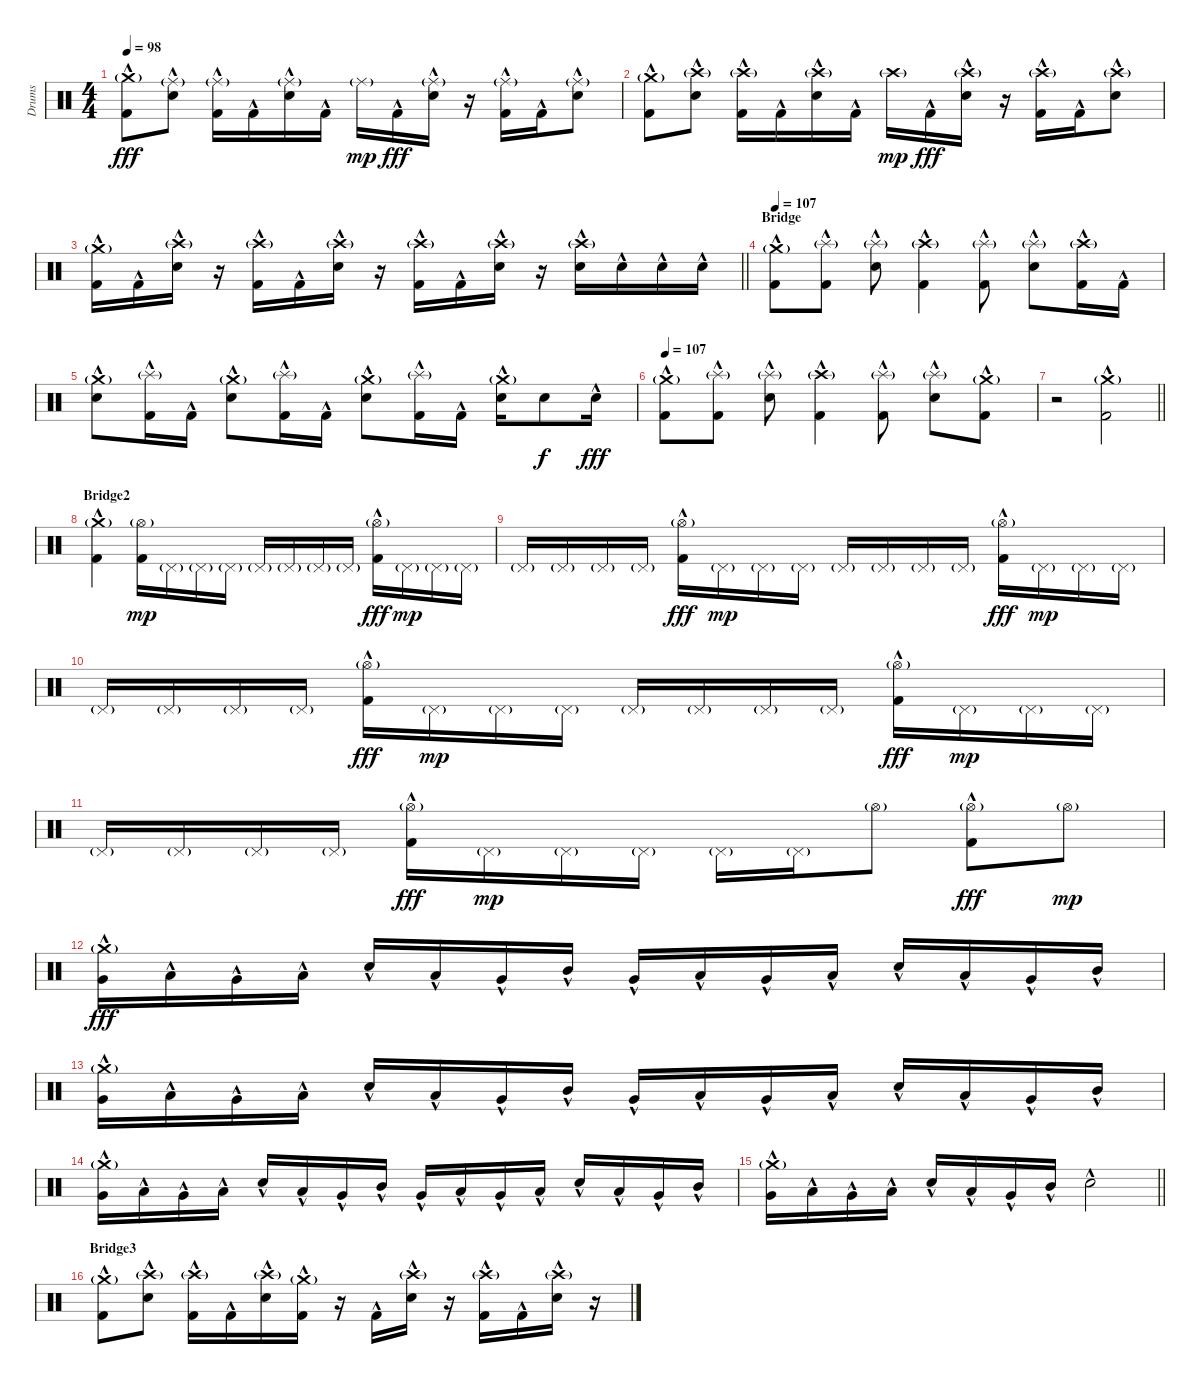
\track ("Drums" "Drums") {instrument percussion}
\staff {score}
\articulation defaults
\ts (4 4)
\tempo 98
\clef neutral
\ks c
("Crash medium (hit)"{g} "Kick (hit) 2"{hac}).8{dy fff} ("Ride (middle)"{g} "Snare (hit) 2"{hac}).8 ("Ride (middle)"{g} "Kick (hit) 2"{hac}).16 "Kick (hit) 2"{hac}.16 ("Ride (middle)"{g} "Snare (hit) 2"{hac}).16 "Kick (hit) 2"{hac}.16 "Ride (middle)"{g}.16{dy mp} "Kick (hit) 2"{hac}.16{dy fff} ("Ride (middle)"{g} "Snare (hit) 2"{hac}).16 r.16 ("Ride (middle)"{g} "Kick (hit) 2"{hac}).16 "Kick (hit) 2"{hac}.16 ("Ride (middle)"{g} "Snare (hit) 2"{hac}).8 |
("Crash medium (hit)"{g} "Kick (hit) 2"{hac}).8 ("Crash high (hit)"{g} "Snare (hit) 2"{hac}).8 ("Crash high (hit)"{g} "Kick (hit) 2"{hac}).16 "Kick (hit) 2"{hac}.16 ("Crash high (hit)"{g} "Snare (hit) 2"{hac}).16 "Kick (hit) 2"{hac}.16 "Crash high (hit)"{g}.16{dy mp} "Kick (hit) 2"{hac}.16{dy fff} ("Crash high (hit)"{g} "Snare (hit) 2"{hac}).16 r.16 ("Crash high (hit)"{g} "Kick (hit) 2"{hac}).16 "Kick (hit) 2"{hac}.16 ("Crash high (hit)"{g} "Snare (hit) 2"{hac}).8 |
\barLineRight lightlight
("Crash medium (hit)"{g} "Kick (hit) 2"{hac}).16 "Kick (hit) 2"{hac}.16 ("Crash high (hit)"{g} "Snare (hit) 2"{hac}).16 r.16 ("Crash high (hit)"{g} "Kick (hit) 2"{hac}).16 "Kick (hit) 2"{hac}.16 ("Crash high (hit)"{g} "Snare (hit) 2"{hac}).16 r.16 ("Crash high (hit)"{g} "Kick (hit) 2"{hac}).16 "Kick (hit) 2"{hac}.16 ("Crash high (hit)"{g} "Snare (hit) 2"{hac}).16 r.16 ("Crash high (hit)"{g} "Snare (hit) 2"{hac}).16 "Snare (hit) 2"{hac}.16 "Snare (hit) 2"{hac}.16 "Snare (hit) 2"{hac}.16 |
\section ("" "Bridge")
\tempo 107
("Crash medium (hit)"{g} "Kick (hit) 2"{hac}).8 ("Splash (hit)"{g} "Kick (hit) 2"{hac}).8 ("Splash (hit)"{g} "Snare (hit) 2"{hac}).8 ("Crash high (hit)"{g} "Kick (hit) 2"{hac}).4 ("Splash (hit)"{g} "Kick (hit) 2"{hac}).8 ("Splash (hit)"{g} "Snare (hit) 2"{hac}).8 ("Crash high (hit)"{g} "Kick (hit) 2"{hac}).16 "Kick (hit) 2"{hac}.16 |
("Crash medium (hit)"{g} "Snare (hit) 2"{hac}).8 ("Splash (hit)"{g} "Kick (hit) 2"{hac}).16 "Kick (hit) 2"{hac}.16 ("Crash medium (hit)"{g} "Snare (hit) 2"{hac}).8 ("Splash (hit)"{g} "Kick (hit) 2"{hac}).16 "Kick (hit) 2"{hac}.16 ("Crash medium (hit)"{g} "Snare (hit) 2"{hac}).8 ("Splash (hit)"{g} "Kick (hit) 2"{hac}).16 "Kick (hit) 2"{hac}.16 ("Crash medium (hit)"{g} "Snare (hit) 2"{hac}).16 "Snare (hit) 2".8{dy f} "Snare (hit) 2"{hac}.16{dy fff} |
\tempo 107
("Crash medium (hit)"{g} "Kick (hit) 2"{hac}).8 ("Splash (hit)"{g} "Kick (hit) 2"{hac}).8 ("Splash (hit)"{g} "Snare (hit) 2"{hac}).8 ("Crash high (hit)"{g} "Kick (hit) 2"{hac}).4 ("Splash (hit)"{g} "Kick (hit) 2"{hac}).8 ("Splash (hit)"{g} "Snare (hit) 2"{hac}).8 ("Crash medium (hit)"{g} "Kick (hit) 2"{hac}).8 |
\barLineRight lightlight
r.2 ("Crash medium (hit)"{g} "Kick (hit) 2"{hac}).2 |
\section ("" "Bridge2")
("Crash medium (hit)"{g} "Kick (hit) 2"{hac}).4 ("Hi-Hat (open)"{g} "Kick (hit) 2").16{dy mp} "Pedal Hi-Hat (hit)"{g}.16 "Pedal Hi-Hat (hit)"{g}.16 "Pedal Hi-Hat (hit)"{g}.16 "Pedal Hi-Hat (hit)"{g}.16 "Pedal Hi-Hat (hit)"{g}.16 "Pedal Hi-Hat (hit)"{g}.16 "Pedal Hi-Hat (hit)"{g}.16 ("Hi-Hat (open)"{g} "Kick (hit) 2"{hac}).16{dy fff} "Pedal Hi-Hat (hit)"{g}.16{dy mp} "Pedal Hi-Hat (hit)"{g}.16 "Pedal Hi-Hat (hit)"{g}.16 |
"Pedal Hi-Hat (hit)"{g}.16 "Pedal Hi-Hat (hit)"{g}.16 "Pedal Hi-Hat (hit)"{g}.16 "Pedal Hi-Hat (hit)"{g}.16 ("Hi-Hat (open)"{g} "Kick (hit) 2"{hac}).16{dy fff} "Pedal Hi-Hat (hit)"{g}.16{dy mp} "Pedal Hi-Hat (hit)"{g}.16 "Pedal Hi-Hat (hit)"{g}.16 "Pedal Hi-Hat (hit)"{g}.16 "Pedal Hi-Hat (hit)"{g}.16 "Pedal Hi-Hat (hit)"{g}.16 "Pedal Hi-Hat (hit)"{g}.16 ("Hi-Hat (open)"{g} "Kick (hit) 2"{hac}).16{dy fff} "Pedal Hi-Hat (hit)"{g}.16{dy mp} "Pedal Hi-Hat (hit)"{g}.16 "Pedal Hi-Hat (hit)"{g}.16 |
"Pedal Hi-Hat (hit)"{g}.16 "Pedal Hi-Hat (hit)"{g}.16 "Pedal Hi-Hat (hit)"{g}.16 "Pedal Hi-Hat (hit)"{g}.16 ("Hi-Hat (open)"{g} "Kick (hit) 2"{hac}).16{dy fff} "Pedal Hi-Hat (hit)"{g}.16{dy mp} "Pedal Hi-Hat (hit)"{g}.16 "Pedal Hi-Hat (hit)"{g}.16 "Pedal Hi-Hat (hit)"{g}.16 "Pedal Hi-Hat (hit)"{g}.16 "Pedal Hi-Hat (hit)"{g}.16 "Pedal Hi-Hat (hit)"{g}.16 ("Hi-Hat (open)"{g} "Kick (hit) 2"{hac}).16{dy fff} "Pedal Hi-Hat (hit)"{g}.16{dy mp} "Pedal Hi-Hat (hit)"{g}.16 "Pedal Hi-Hat (hit)"{g}.16 |
"Pedal Hi-Hat (hit)"{g}.16 "Pedal Hi-Hat (hit)"{g}.16 "Pedal Hi-Hat (hit)"{g}.16 "Pedal Hi-Hat (hit)"{g}.16 ("Hi-Hat (open)"{g} "Kick (hit) 2"{hac}).16{dy fff} "Pedal Hi-Hat (hit)"{g}.16{dy mp} "Pedal Hi-Hat (hit)"{g}.16 "Pedal Hi-Hat (hit)"{g}.16 "Pedal Hi-Hat (hit)"{g}.16 "Pedal Hi-Hat (hit)"{g}.16 "Hi-Hat (open)"{g}.8 ("Hi-Hat (open)"{g} "Kick (hit) 2"{hac}).8{dy fff} "Hi-Hat (open)"{g}.8{dy mp} |
("Crash medium (hit)"{g} "Very Low Tom (hit)"{hac}).16{dy fff} "Low Floor Tom (hit)"{hac}.16 "Very Low Tom (hit)"{hac}.16 "Low Floor Tom (hit)"{hac}.16 "Snare (hit) 2"{hac}.16 "Low Tom (hit)"{hac}.16 "Very Low Tom (hit)"{hac}.16 "Mid Tom (hit)"{hac}.16 "Very Low Tom (hit)"{hac}.16 "Low Floor Tom (hit)"{hac}.16 "Very Low Tom (hit)"{hac}.16 "Low Floor Tom (hit)"{hac}.16 "Snare (hit) 2"{hac}.16 "Low Tom (hit)"{hac}.16 "Very Low Tom (hit)"{hac}.16 "Mid Tom (hit)"{hac}.16 |
("Crash medium (hit)"{g} "Very Low Tom (hit)"{hac}).16 "Low Floor Tom (hit)"{hac}.16 "Very Low Tom (hit)"{hac}.16 "Low Floor Tom (hit)"{hac}.16 "Snare (hit) 2"{hac}.16 "Low Tom (hit)"{hac}.16 "Very Low Tom (hit)"{hac}.16 "Mid Tom (hit)"{hac}.16 "Very Low Tom (hit)"{hac}.16 "Low Floor Tom (hit)"{hac}.16 "Very Low Tom (hit)"{hac}.16 "Low Floor Tom (hit)"{hac}.16 "Snare (hit) 2"{hac}.16 "Low Tom (hit)"{hac}.16 "Very Low Tom (hit)"{hac}.16 "Mid Tom (hit)"{hac}.16 |
("Crash medium (hit)"{g} "Very Low Tom (hit)"{hac}).16 "Low Floor Tom (hit)"{hac}.16 "Very Low Tom (hit)"{hac}.16 "Low Floor Tom (hit)"{hac}.16 "Snare (hit) 2"{hac}.16 "Low Tom (hit)"{hac}.16 "Very Low Tom (hit)"{hac}.16 "Mid Tom (hit)"{hac}.16 "Very Low Tom (hit)"{hac}.16 "Low Floor Tom (hit)"{hac}.16 "Very Low Tom (hit)"{hac}.16 "Low Floor Tom (hit)"{hac}.16 "Snare (hit) 2"{hac}.16 "Low Tom (hit)"{hac}.16 "Very Low Tom (hit)"{hac}.16 "Mid Tom (hit)"{hac}.16 |
\barLineRight lightlight
("Crash medium (hit)"{g} "Very Low Tom (hit)"{hac}).16 "Low Floor Tom (hit)"{hac}.16 "Very Low Tom (hit)"{hac}.16 "Low Floor Tom (hit)"{hac}.16 "Snare (hit) 2"{hac}.16 "Low Tom (hit)"{hac}.16 "Very Low Tom (hit)"{hac}.16 "Mid Tom (hit)"{hac}.16 "Snare (hit) 2"{hac}.2 |
\section ("" "Bridge3")
("Crash medium (hit)"{g} "Kick (hit) 2"{hac}).8 ("Crash high (hit)"{g} "Snare (hit) 2"{hac}).8 ("Crash high (hit)"{g} "Kick (hit) 2"{hac}).16 "Kick (hit) 2"{hac}.16 ("Crash high (hit)"{g} "Snare (hit) 2"{hac}).16 ("Crash medium (hit)"{g} "Kick (hit) 2"{hac}).16 r.16 "Kick (hit) 2"{hac}.16 ("Crash high (hit)"{g} "Snare (hit) 2"{hac}).16 r.16 ("Crash high (hit)"{g} "Kick (hit) 2"{hac}).16 "Kick (hit) 2"{hac}.16 ("Crash high (hit)"{g} "Snare (hit) 2"{hac}).16 r.16
